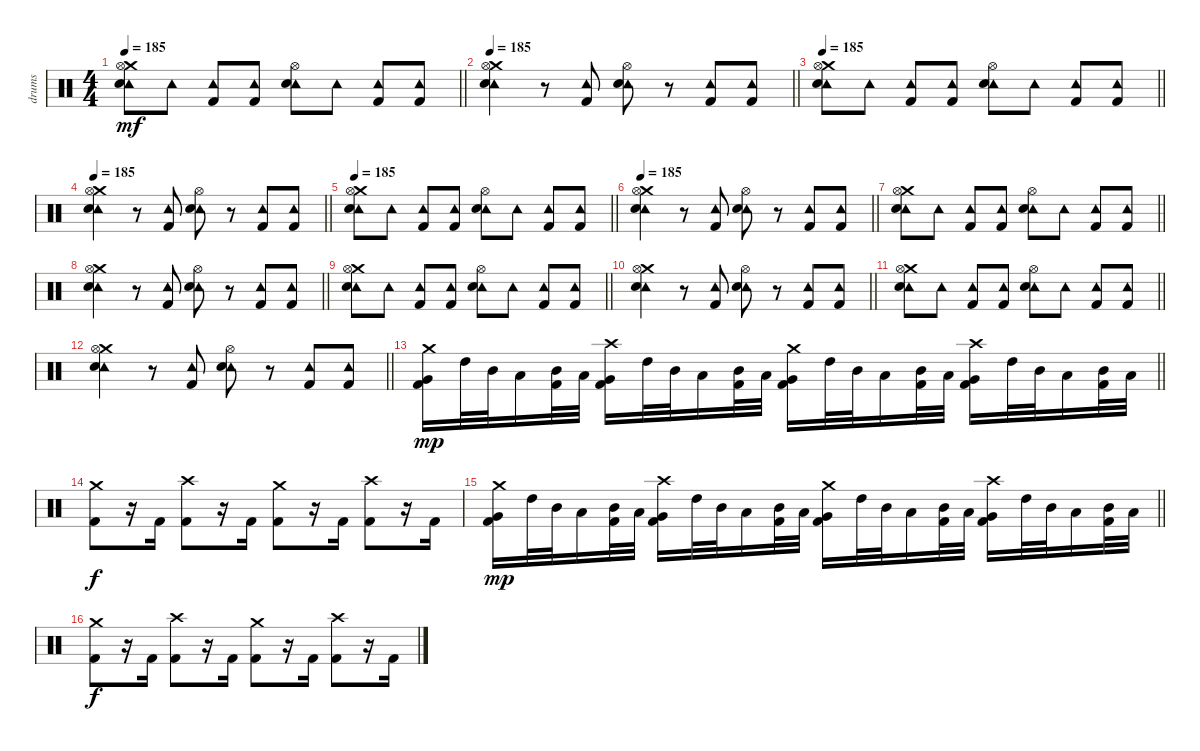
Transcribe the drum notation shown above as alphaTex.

\track ("drums" "drums") {instrument percussion}
\staff {score}
\articulation defaults
\ts (4 4)
\tempo 185
\clef neutral
\barLineRight lightlight
\ks c
("Tambourine (hit)" "Crash medium (hit)" "Hi-Hat (open)" "Electric Snare (hit)").8{dy mf} "Tambourine (hit)".8 ("Tambourine (hit)" "Kick (hit) 2").8 ("Tambourine (hit)" "Kick (hit) 2").8 ("Tambourine (hit)" "Hi-Hat (open)" "Electric Snare (hit)").8 "Tambourine (hit)".8 ("Tambourine (hit)" "Kick (hit) 2").8 ("Tambourine (hit)" "Kick (hit) 2").8 |
\tempo 185
\barLineRight lightlight
("Tambourine (hit)" "Crash medium (hit)" "Hi-Hat (open)" "Electric Snare (hit)").4 r.8 ("Tambourine (hit)" "Kick (hit) 2").8 ("Tambourine (hit)" "Hi-Hat (open)" "Electric Snare (hit)").8 r.8 ("Tambourine (hit)" "Kick (hit) 2").8 ("Tambourine (hit)" "Kick (hit) 2").8 |
\tempo 185
\barLineRight lightlight
("Tambourine (hit)" "Crash medium (hit)" "Hi-Hat (open)" "Electric Snare (hit)").8 "Tambourine (hit)".8 ("Tambourine (hit)" "Kick (hit) 2").8 ("Tambourine (hit)" "Kick (hit) 2").8 ("Tambourine (hit)" "Hi-Hat (open)" "Electric Snare (hit)").8 "Tambourine (hit)".8 ("Tambourine (hit)" "Kick (hit) 2").8 ("Tambourine (hit)" "Kick (hit) 2").8 |
\tempo 185
\barLineRight lightlight
("Tambourine (hit)" "Crash medium (hit)" "Hi-Hat (open)" "Electric Snare (hit)").4 r.8 ("Tambourine (hit)" "Kick (hit) 2").8 ("Tambourine (hit)" "Hi-Hat (open)" "Electric Snare (hit)").8 r.8 ("Tambourine (hit)" "Kick (hit) 2").8 ("Tambourine (hit)" "Kick (hit) 2").8 |
\tempo 185
\barLineRight lightlight
("Tambourine (hit)" "Crash medium (hit)" "Hi-Hat (open)" "Electric Snare (hit)").8 "Tambourine (hit)".8 ("Tambourine (hit)" "Kick (hit) 2").8 ("Tambourine (hit)" "Kick (hit) 2").8 ("Tambourine (hit)" "Hi-Hat (open)" "Electric Snare (hit)").8 "Tambourine (hit)".8 ("Tambourine (hit)" "Kick (hit) 2").8 ("Tambourine (hit)" "Kick (hit) 2").8 |
\tempo 185
\barLineRight lightlight
("Tambourine (hit)" "Crash medium (hit)" "Hi-Hat (open)" "Electric Snare (hit)").4 r.8 ("Tambourine (hit)" "Kick (hit) 2").8 ("Tambourine (hit)" "Hi-Hat (open)" "Electric Snare (hit)").8 r.8 ("Tambourine (hit)" "Kick (hit) 2").8 ("Tambourine (hit)" "Kick (hit) 2").8 |
\barLineRight lightlight
("Tambourine (hit)" "Crash medium (hit)" "Hi-Hat (open)" "Electric Snare (hit)").8 "Tambourine (hit)".8 ("Tambourine (hit)" "Kick (hit) 2").8 ("Tambourine (hit)" "Kick (hit) 2").8 ("Tambourine (hit)" "Hi-Hat (open)" "Electric Snare (hit)").8 "Tambourine (hit)".8 ("Tambourine (hit)" "Kick (hit) 2").8 ("Tambourine (hit)" "Kick (hit) 2").8 |
\barLineRight lightlight
("Tambourine (hit)" "Crash medium (hit)" "Hi-Hat (open)" "Electric Snare (hit)").4 r.8 ("Tambourine (hit)" "Kick (hit) 2").8 ("Tambourine (hit)" "Hi-Hat (open)" "Electric Snare (hit)").8 r.8 ("Tambourine (hit)" "Kick (hit) 2").8 ("Tambourine (hit)" "Kick (hit) 2").8 |
\barLineRight lightlight
("Tambourine (hit)" "Crash medium (hit)" "Hi-Hat (open)" "Electric Snare (hit)").8 "Tambourine (hit)".8 ("Tambourine (hit)" "Kick (hit) 2").8 ("Tambourine (hit)" "Kick (hit) 2").8 ("Tambourine (hit)" "Hi-Hat (open)" "Electric Snare (hit)").8 "Tambourine (hit)".8 ("Tambourine (hit)" "Kick (hit) 2").8 ("Tambourine (hit)" "Kick (hit) 2").8 |
\barLineRight lightlight
("Tambourine (hit)" "Crash medium (hit)" "Hi-Hat (open)" "Electric Snare (hit)").4 r.8 ("Tambourine (hit)" "Kick (hit) 2").8 ("Tambourine (hit)" "Hi-Hat (open)" "Electric Snare (hit)").8 r.8 ("Tambourine (hit)" "Kick (hit) 2").8 ("Tambourine (hit)" "Kick (hit) 2").8 |
\barLineRight lightlight
("Tambourine (hit)" "Crash medium (hit)" "Hi-Hat (open)" "Electric Snare (hit)").8 "Tambourine (hit)".8 ("Tambourine (hit)" "Kick (hit) 2").8 ("Tambourine (hit)" "Kick (hit) 2").8 ("Tambourine (hit)" "Hi-Hat (open)" "Electric Snare (hit)").8 "Tambourine (hit)".8 ("Tambourine (hit)" "Kick (hit) 2").8 ("Tambourine (hit)" "Kick (hit) 2").8 |
\barLineRight lightlight
("Tambourine (hit)" "Crash medium (hit)" "Hi-Hat (open)" "Electric Snare (hit)").4 r.8 ("Tambourine (hit)" "Kick (hit) 2").8 ("Tambourine (hit)" "Hi-Hat (open)" "Electric Snare (hit)").8 r.8 ("Tambourine (hit)" "Kick (hit) 2").8 ("Tambourine (hit)" "Kick (hit) 2").8 |
\barLineRight lightlight
("Crash medium (hit)" "Very Low Tom (hit)" "Kick (hit) 2").16{dy mp} "High Tom (hit)".32 "Mid Tom (hit)".32 "Low Tom (hit)".16 ("Mid Tom (hit)" "Kick (hit) 2").32 "Low Tom (hit)".32 ("Crash high (hit)" "Very Low Tom (hit)" "Kick (hit) 2").16 "High Tom (hit)".32 "Mid Tom (hit)".32 "Low Tom (hit)".16 ("Mid Tom (hit)" "Kick (hit) 2").32 "Low Tom (hit)".32 ("Crash medium (hit)" "Very Low Tom (hit)" "Kick (hit) 2").16 "High Tom (hit)".32 "Mid Tom (hit)".32 "Low Tom (hit)".16 ("Mid Tom (hit)" "Kick (hit) 2").32 "Low Tom (hit)".32 ("Crash high (hit)" "Very Low Tom (hit)" "Kick (hit) 2").16 "High Tom (hit)".32 "Mid Tom (hit)".32 "Low Tom (hit)".16 ("Mid Tom (hit)" "Kick (hit) 2").32 "Low Tom (hit)".32 |
("Crash medium (hit)" "Kick (hit) 2").8{dy f} r.16 "Kick (hit) 2".16 ("Crash high (hit)" "Kick (hit) 2").8 r.16 "Kick (hit) 2".16 ("Crash medium (hit)" "Kick (hit) 2").8 r.16 "Kick (hit) 2".16 ("Crash high (hit)" "Kick (hit) 2").8 r.16 "Kick (hit) 2".16 |
\barLineRight lightlight
("Crash medium (hit)" "Very Low Tom (hit)" "Kick (hit) 2").16{dy mp} "High Tom (hit)".32 "Mid Tom (hit)".32 "Low Tom (hit)".16 ("Mid Tom (hit)" "Kick (hit) 2").32 "Low Tom (hit)".32 ("Crash high (hit)" "Very Low Tom (hit)" "Kick (hit) 2").16 "High Tom (hit)".32 "Mid Tom (hit)".32 "Low Tom (hit)".16 ("Mid Tom (hit)" "Kick (hit) 2").32 "Low Tom (hit)".32 ("Crash medium (hit)" "Very Low Tom (hit)" "Kick (hit) 2").16 "High Tom (hit)".32 "Mid Tom (hit)".32 "Low Tom (hit)".16 ("Mid Tom (hit)" "Kick (hit) 2").32 "Low Tom (hit)".32 ("Crash high (hit)" "Very Low Tom (hit)" "Kick (hit) 2").16 "High Tom (hit)".32 "Mid Tom (hit)".32 "Low Tom (hit)".16 ("Mid Tom (hit)" "Kick (hit) 2").32 "Low Tom (hit)".32 |
("Crash medium (hit)" "Kick (hit) 2").8{dy f} r.16 "Kick (hit) 2".16 ("Crash high (hit)" "Kick (hit) 2").8 r.16 "Kick (hit) 2".16 ("Crash medium (hit)" "Kick (hit) 2").8 r.16 "Kick (hit) 2".16 ("Crash high (hit)" "Kick (hit) 2").8 r.16 "Kick (hit) 2".16
